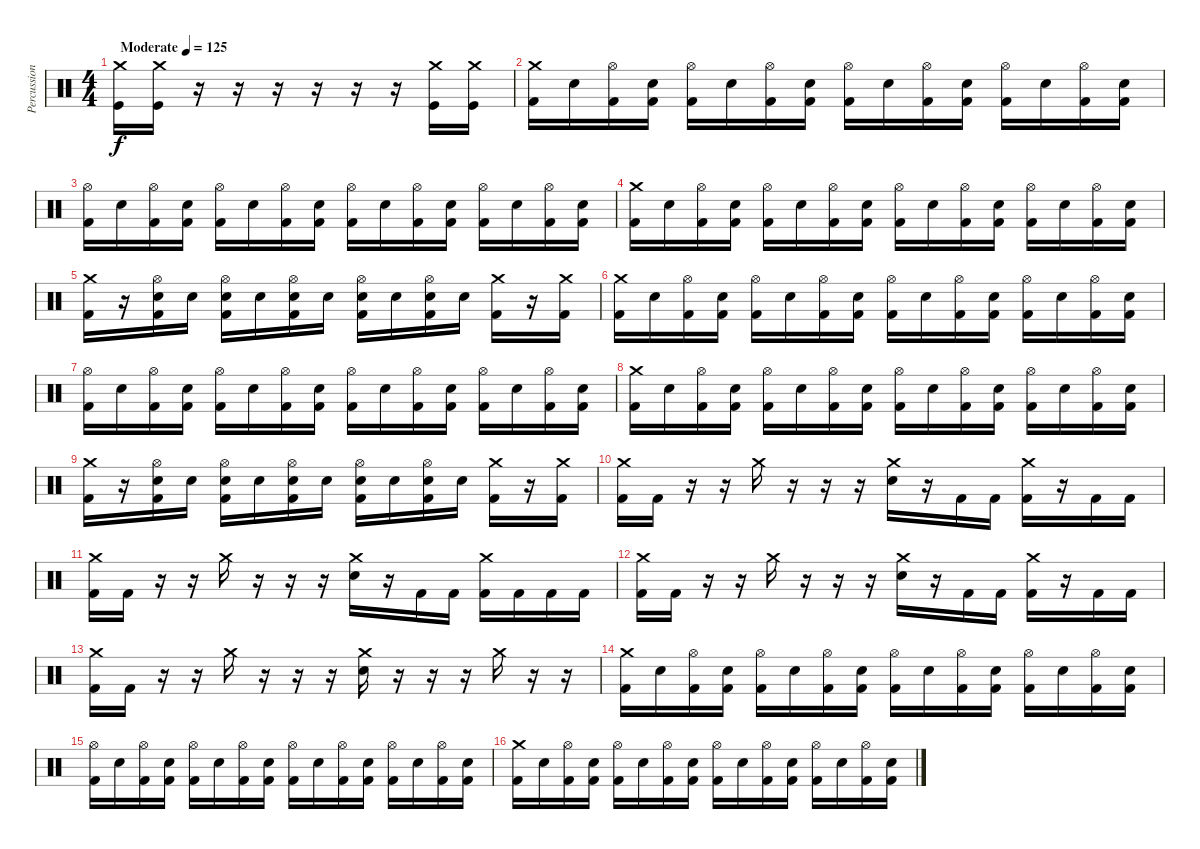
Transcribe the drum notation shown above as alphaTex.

\track ("Percussion" "Percussion") {instrument percussion}
\staff {score}
\articulation defaults
\ts (4 4)
\tempo (125 "Moderate")
\clef neutral
\ks c
("Crash medium (hit)" "Kick (hit)").16{dy f} ("Crash medium (hit)" "Kick (hit)").16 r.16 r.16 r.16 r.16 r.16 r.16 ("Crash medium (hit)" "Kick (hit)").16 ("Crash medium (hit)" "Kick (hit)").16 |
("Crash medium (hit)" "Kick (hit) 2").16 "Snare (hit) 2".16 ("Hi-Hat (open)" "Kick (hit) 2").16 ("Snare (hit) 2" "Kick (hit) 2").16 ("Hi-Hat (open)" "Kick (hit) 2").16 "Snare (hit) 2".16 ("Hi-Hat (open)" "Kick (hit) 2").16 ("Snare (hit) 2" "Kick (hit) 2").16 ("Hi-Hat (open)" "Kick (hit) 2").16 "Snare (hit) 2".16 ("Hi-Hat (open)" "Kick (hit) 2").16 ("Snare (hit) 2" "Kick (hit) 2").16 ("Hi-Hat (open)" "Kick (hit) 2").16 "Snare (hit) 2".16 ("Hi-Hat (open)" "Kick (hit) 2").16 ("Snare (hit) 2" "Kick (hit) 2").16 |
("Hi-Hat (open)" "Kick (hit) 2").16 "Snare (hit) 2".16 ("Hi-Hat (open)" "Kick (hit) 2").16 ("Snare (hit) 2" "Kick (hit) 2").16 ("Hi-Hat (open)" "Kick (hit) 2").16 "Snare (hit) 2".16 ("Hi-Hat (open)" "Kick (hit) 2").16 ("Snare (hit) 2" "Kick (hit) 2").16 ("Hi-Hat (open)" "Kick (hit) 2").16 "Snare (hit) 2".16 ("Hi-Hat (open)" "Kick (hit) 2").16 ("Snare (hit) 2" "Kick (hit) 2").16 ("Hi-Hat (open)" "Kick (hit) 2").16 "Snare (hit) 2".16 ("Hi-Hat (open)" "Kick (hit) 2").16 ("Snare (hit) 2" "Kick (hit) 2").16 |
("Crash medium (hit)" "Kick (hit) 2").16 "Snare (hit) 2".16 ("Hi-Hat (open)" "Kick (hit) 2").16 ("Snare (hit) 2" "Kick (hit) 2").16 ("Hi-Hat (open)" "Kick (hit) 2").16 "Snare (hit) 2".16 ("Hi-Hat (open)" "Kick (hit) 2").16 ("Snare (hit) 2" "Kick (hit) 2").16 ("Hi-Hat (open)" "Kick (hit) 2").16 "Snare (hit) 2".16 ("Hi-Hat (open)" "Kick (hit) 2").16 ("Snare (hit) 2" "Kick (hit) 2").16 ("Hi-Hat (open)" "Kick (hit) 2").16 "Snare (hit) 2".16 ("Hi-Hat (open)" "Kick (hit) 2").16 ("Snare (hit) 2" "Kick (hit) 2").16 |
("Crash medium (hit)" "Kick (hit) 2").16 r.16 ("Hi-Hat (open)" "Snare (hit) 2" "Kick (hit) 2").16 "Snare (hit) 2".16 ("Hi-Hat (open)" "Snare (hit) 2" "Kick (hit) 2").16 "Snare (hit) 2".16 ("Hi-Hat (open)" "Snare (hit) 2" "Kick (hit) 2").16 "Snare (hit) 2".16 ("Hi-Hat (open)" "Snare (hit) 2" "Kick (hit) 2").16 "Snare (hit) 2".16 ("Hi-Hat (open)" "Snare (hit) 2" "Kick (hit) 2").16 "Snare (hit) 2".16 ("Crash medium (hit)" "Kick (hit) 2").16 r.16 ("Crash medium (hit)" "Kick (hit) 2").16 |
("Crash medium (hit)" "Kick (hit) 2").16 "Snare (hit) 2".16 ("Hi-Hat (open)" "Kick (hit) 2").16 ("Snare (hit) 2" "Kick (hit) 2").16 ("Hi-Hat (open)" "Kick (hit) 2").16 "Snare (hit) 2".16 ("Hi-Hat (open)" "Kick (hit) 2").16 ("Snare (hit) 2" "Kick (hit) 2").16 ("Hi-Hat (open)" "Kick (hit) 2").16 "Snare (hit) 2".16 ("Hi-Hat (open)" "Kick (hit) 2").16 ("Snare (hit) 2" "Kick (hit) 2").16 ("Hi-Hat (open)" "Kick (hit) 2").16 "Snare (hit) 2".16 ("Hi-Hat (open)" "Kick (hit) 2").16 ("Snare (hit) 2" "Kick (hit) 2").16 |
("Hi-Hat (open)" "Kick (hit) 2").16 "Snare (hit) 2".16 ("Hi-Hat (open)" "Kick (hit) 2").16 ("Snare (hit) 2" "Kick (hit) 2").16 ("Hi-Hat (open)" "Kick (hit) 2").16 "Snare (hit) 2".16 ("Hi-Hat (open)" "Kick (hit) 2").16 ("Snare (hit) 2" "Kick (hit) 2").16 ("Hi-Hat (open)" "Kick (hit) 2").16 "Snare (hit) 2".16 ("Hi-Hat (open)" "Kick (hit) 2").16 ("Snare (hit) 2" "Kick (hit) 2").16 ("Hi-Hat (open)" "Kick (hit) 2").16 "Snare (hit) 2".16 ("Hi-Hat (open)" "Kick (hit) 2").16 ("Snare (hit) 2" "Kick (hit) 2").16 |
("Crash medium (hit)" "Kick (hit) 2").16 "Snare (hit) 2".16 ("Hi-Hat (open)" "Kick (hit) 2").16 ("Snare (hit) 2" "Kick (hit) 2").16 ("Hi-Hat (open)" "Kick (hit) 2").16 "Snare (hit) 2".16 ("Hi-Hat (open)" "Kick (hit) 2").16 ("Snare (hit) 2" "Kick (hit) 2").16 ("Hi-Hat (open)" "Kick (hit) 2").16 "Snare (hit) 2".16 ("Hi-Hat (open)" "Kick (hit) 2").16 ("Snare (hit) 2" "Kick (hit) 2").16 ("Hi-Hat (open)" "Kick (hit) 2").16 "Snare (hit) 2".16 ("Hi-Hat (open)" "Kick (hit) 2").16 ("Snare (hit) 2" "Kick (hit) 2").16 |
("Crash medium (hit)" "Kick (hit) 2").16 r.16 ("Hi-Hat (open)" "Snare (hit) 2" "Kick (hit) 2").16 "Snare (hit) 2".16 ("Hi-Hat (open)" "Snare (hit) 2" "Kick (hit) 2").16 "Snare (hit) 2".16 ("Hi-Hat (open)" "Snare (hit) 2" "Kick (hit) 2").16 "Snare (hit) 2".16 ("Hi-Hat (open)" "Snare (hit) 2" "Kick (hit) 2").16 "Snare (hit) 2".16 ("Hi-Hat (open)" "Snare (hit) 2" "Kick (hit) 2").16 "Snare (hit) 2".16 ("Crash medium (hit)" "Kick (hit) 2").16 r.16 ("Crash medium (hit)" "Kick (hit) 2").16 |
("Crash medium (hit)" "Kick (hit) 2").16 "Kick (hit) 2".16 r.16 r.16 "Crash medium (hit)".16 r.16 r.16 r.16 ("Crash medium (hit)" "Snare (hit) 2").16 r.16 "Kick (hit) 2".16 "Kick (hit) 2".16 ("Crash medium (hit)" "Kick (hit) 2").16 r.16 "Kick (hit) 2".16 "Kick (hit) 2".16 |
("Crash medium (hit)" "Kick (hit) 2").16 "Kick (hit) 2".16 r.16 r.16 "Crash medium (hit)".16 r.16 r.16 r.16 ("Crash medium (hit)" "Snare (hit) 2").16 r.16 "Kick (hit) 2".16 "Kick (hit) 2".16 ("Crash medium (hit)" "Kick (hit) 2").16 "Kick (hit) 2".16 "Kick (hit) 2".16 "Kick (hit) 2".16 |
("Crash medium (hit)" "Kick (hit) 2").16 "Kick (hit) 2".16 r.16 r.16 "Crash medium (hit)".16 r.16 r.16 r.16 ("Crash medium (hit)" "Snare (hit) 2").16 r.16 "Kick (hit) 2".16 "Kick (hit) 2".16 ("Crash medium (hit)" "Kick (hit) 2").16 r.16 "Kick (hit) 2".16 "Kick (hit) 2".16 |
("Crash medium (hit)" "Kick (hit) 2").16 "Kick (hit) 2".16 r.16 r.16 "Crash medium (hit)".16 r.16 r.16 r.16 ("Crash medium (hit)" "Snare (hit) 2").16 r.16 r.16 r.16 "Crash medium (hit)".16 r.16 r.16 |
("Crash medium (hit)" "Kick (hit) 2").16 "Snare (hit) 2".16 ("Hi-Hat (open)" "Kick (hit) 2").16 ("Snare (hit) 2" "Kick (hit) 2").16 ("Hi-Hat (open)" "Kick (hit) 2").16 "Snare (hit) 2".16 ("Hi-Hat (open)" "Kick (hit) 2").16 ("Snare (hit) 2" "Kick (hit) 2").16 ("Hi-Hat (open)" "Kick (hit) 2").16 "Snare (hit) 2".16 ("Hi-Hat (open)" "Kick (hit) 2").16 ("Snare (hit) 2" "Kick (hit) 2").16 ("Hi-Hat (open)" "Kick (hit) 2").16 "Snare (hit) 2".16 ("Hi-Hat (open)" "Kick (hit) 2").16 ("Snare (hit) 2" "Kick (hit) 2").16 |
("Hi-Hat (open)" "Kick (hit) 2").16 "Snare (hit) 2".16 ("Hi-Hat (open)" "Kick (hit) 2").16 ("Snare (hit) 2" "Kick (hit) 2").16 ("Hi-Hat (open)" "Kick (hit) 2").16 "Snare (hit) 2".16 ("Hi-Hat (open)" "Kick (hit) 2").16 ("Snare (hit) 2" "Kick (hit) 2").16 ("Hi-Hat (open)" "Kick (hit) 2").16 "Snare (hit) 2".16 ("Hi-Hat (open)" "Kick (hit) 2").16 ("Snare (hit) 2" "Kick (hit) 2").16 ("Hi-Hat (open)" "Kick (hit) 2").16 "Snare (hit) 2".16 ("Hi-Hat (open)" "Kick (hit) 2").16 ("Snare (hit) 2" "Kick (hit) 2").16 |
("Crash medium (hit)" "Kick (hit) 2").16 "Snare (hit) 2".16 ("Hi-Hat (open)" "Kick (hit) 2").16 ("Snare (hit) 2" "Kick (hit) 2").16 ("Hi-Hat (open)" "Kick (hit) 2").16 "Snare (hit) 2".16 ("Hi-Hat (open)" "Kick (hit) 2").16 ("Snare (hit) 2" "Kick (hit) 2").16 ("Hi-Hat (open)" "Kick (hit) 2").16 "Snare (hit) 2".16 ("Hi-Hat (open)" "Kick (hit) 2").16 ("Snare (hit) 2" "Kick (hit) 2").16 ("Hi-Hat (open)" "Kick (hit) 2").16 "Snare (hit) 2".16 ("Hi-Hat (open)" "Kick (hit) 2").16 ("Snare (hit) 2" "Kick (hit) 2").16
